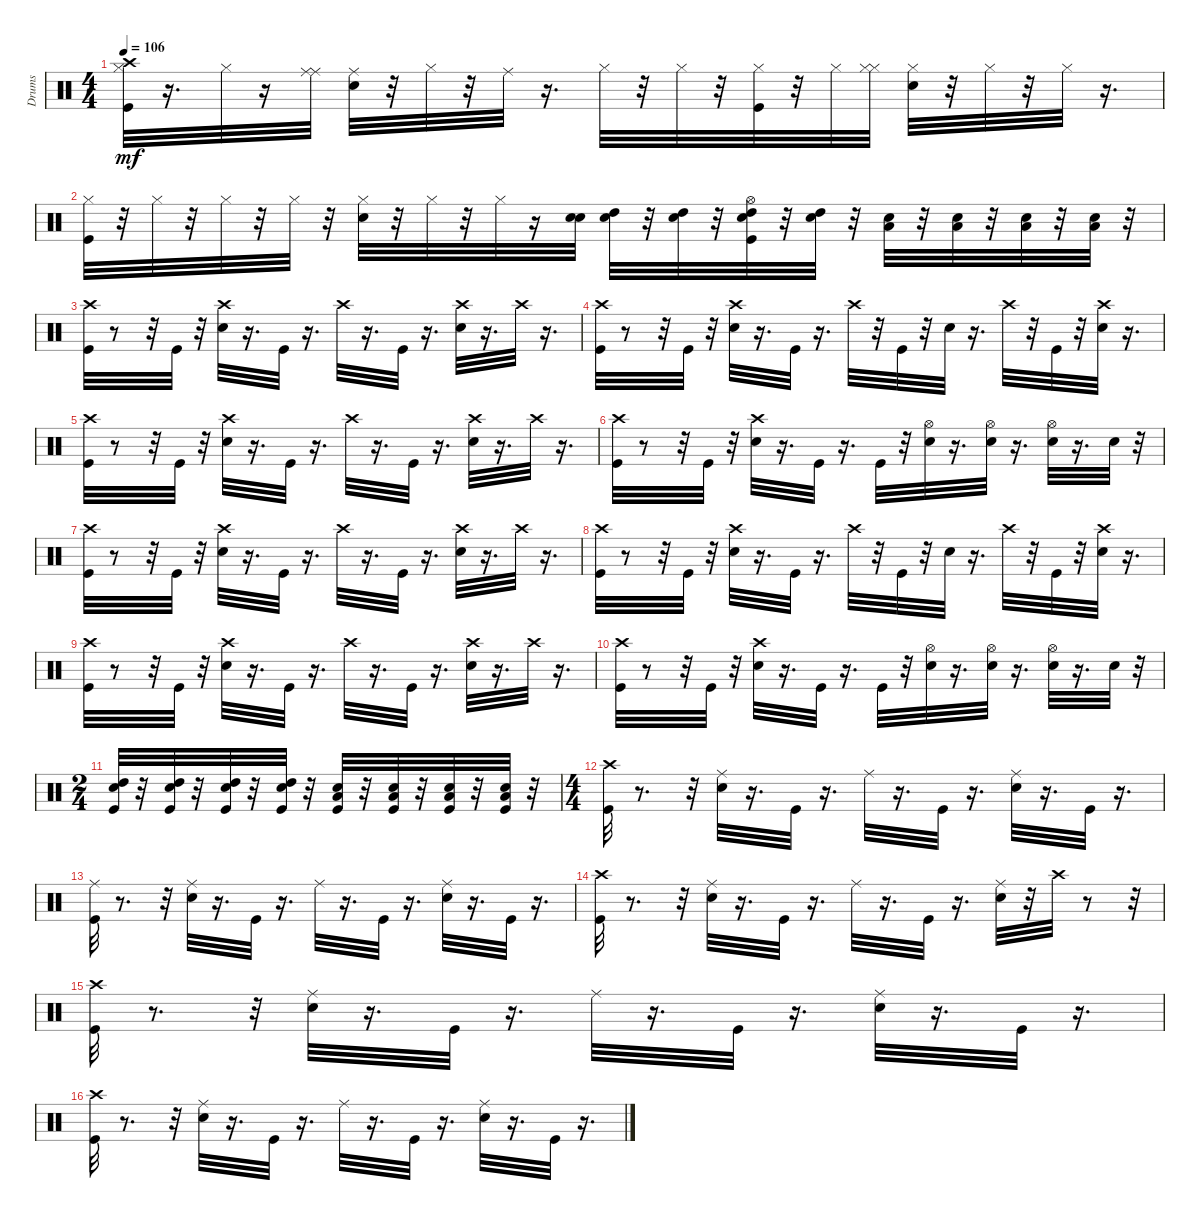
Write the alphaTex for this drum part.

\track ("Drums               " "Drums     ") {instrument percussion}
\staff {score}
\articulation defaults
\ts (4 4)
\tempo 106
\clef neutral
\ks c
("Crash high (hit)" "Hi-Hat (closed)" "Kick (hit)").32{dy mf} r.16{d} "Hi-Hat (closed)".32 r.16 ("Ride (middle)" "Ride (middle)").32 ("Ride (middle)" "Snare (hit) 2").32 r.32 "Hi-Hat (closed)".32 r.32 "Ride (middle)".32 r.16{d} "Hi-Hat (closed)".32 r.32 "Hi-Hat (closed)".32 r.32 ("Hi-Hat (closed)" "Kick (hit)").32 r.32 "Hi-Hat (closed)".32 ("Hi-Hat (closed)" "Hi-Hat (closed)").32 ("Hi-Hat (closed)" "Snare (hit) 2").32 r.32 "Hi-Hat (closed)".32 r.32 "Hi-Hat (closed)".32 r.16{d} |
("Hi-Hat (closed)" "Kick (hit)").32 r.32 "Hi-Hat (closed)".32 r.32 "Hi-Hat (closed)".32 r.32 "Hi-Hat (closed)".32 r.32 ("Snare (hit) 2" "Hi-Hat (closed)").32 r.32 "Hi-Hat (closed)".32 r.32 "Hi-Hat (closed)".32 r.16 ("Snare (hit) 2" "Snare (hit) 2").32 ("Snare (hit) 2" "High Tom (hit)").32 r.32 ("Snare (hit) 2" "High Tom (hit)").32 r.32 ("Hi-Hat (open)" "Snare (hit) 2" "Kick (hit)" "High Tom (hit)").32 r.32 ("Snare (hit) 2" "High Tom (hit)").32 r.32 ("Snare (hit) 2" "Low Tom (hit)").32 r.32 ("Snare (hit) 2" "Low Tom (hit)").32 r.32 ("Snare (hit) 2" "Low Tom (hit)").32 r.32 ("Snare (hit) 2" "Low Tom (hit)").32 r.32 |
("Crash high (hit)" "Kick (hit)").32 r.8 r.32 "Kick (hit)".32 r.32 ("Crash high (hit)" "Snare (hit) 2").32 r.16{d} "Kick (hit)".32 r.16{d} "Crash high (hit)".32 r.16{d} "Kick (hit)".32 r.16{d} ("Crash high (hit)" "Snare (hit) 2").32 r.16{d} "Crash high (hit)".32 r.16{d} |
("Crash high (hit)" "Kick (hit)").32 r.8 r.32 "Kick (hit)".32 r.32 ("Crash high (hit)" "Snare (hit) 2").32 r.16{d} "Kick (hit)".32 r.16{d} "Crash high (hit)".32 r.32 "Kick (hit)".32 r.32 "Snare (hit) 2".32 r.16{d} "Crash high (hit)".32 r.32 "Kick (hit)".32 r.32 ("Crash high (hit)" "Snare (hit) 2").32 r.16{d} |
("Crash high (hit)" "Kick (hit)").32 r.8 r.32 "Kick (hit)".32 r.32 ("Crash high (hit)" "Snare (hit) 2").32 r.16{d} "Kick (hit)".32 r.16{d} "Crash high (hit)".32 r.16{d} "Kick (hit)".32 r.16{d} ("Crash high (hit)" "Snare (hit) 2").32 r.16{d} "Crash high (hit)".32 r.16{d} |
("Crash high (hit)" "Kick (hit)").32 r.8 r.32 "Kick (hit)".32 r.32 ("Crash high (hit)" "Snare (hit) 2").32 r.16{d} "Kick (hit)".32 r.16{d} "Kick (hit)".32 r.32 ("Snare (hit) 2" "Hi-Hat (open)").32 r.16{d} ("Snare (hit) 2" "Hi-Hat (open)").32 r.16{d} ("Hi-Hat (open)" "Snare (hit) 2").32 r.16{d} "Snare (hit) 2".32 r.32 |
("Crash high (hit)" "Kick (hit)").32 r.8 r.32 "Kick (hit)".32 r.32 ("Crash high (hit)" "Snare (hit) 2").32 r.16{d} "Kick (hit)".32 r.16{d} "Crash high (hit)".32 r.16{d} "Kick (hit)".32 r.16{d} ("Crash high (hit)" "Snare (hit) 2").32 r.16{d} "Crash high (hit)".32 r.16{d} |
("Crash high (hit)" "Kick (hit)").32 r.8 r.32 "Kick (hit)".32 r.32 ("Crash high (hit)" "Snare (hit) 2").32 r.16{d} "Kick (hit)".32 r.16{d} "Crash high (hit)".32 r.32 "Kick (hit)".32 r.32 "Snare (hit) 2".32 r.16{d} "Crash high (hit)".32 r.32 "Kick (hit)".32 r.32 ("Crash high (hit)" "Snare (hit) 2").32 r.16{d} |
("Crash high (hit)" "Kick (hit)").32 r.8 r.32 "Kick (hit)".32 r.32 ("Crash high (hit)" "Snare (hit) 2").32 r.16{d} "Kick (hit)".32 r.16{d} "Crash high (hit)".32 r.16{d} "Kick (hit)".32 r.16{d} ("Crash high (hit)" "Snare (hit) 2").32 r.16{d} "Crash high (hit)".32 r.16{d} |
("Crash high (hit)" "Kick (hit)").32 r.8 r.32 "Kick (hit)".32 r.32 ("Crash high (hit)" "Snare (hit) 2").32 r.16{d} "Kick (hit)".32 r.16{d} "Kick (hit)".32 r.32 ("Snare (hit) 2" "Hi-Hat (open)").32 r.16{d} ("Snare (hit) 2" "Hi-Hat (open)").32 r.16{d} ("Hi-Hat (open)" "Snare (hit) 2").32 r.16{d} "Snare (hit) 2".32 r.32 |
\ts (2 4)
("Snare (hit) 2" "High Tom (hit)" "Kick (hit)").32 r.32 ("Snare (hit) 2" "High Tom (hit)" "Kick (hit)").32 r.32 ("Snare (hit) 2" "High Tom (hit)" "Kick (hit)").32 r.32 ("Snare (hit) 2" "High Tom (hit)" "Kick (hit)").32 r.32 ("Snare (hit) 2" "Low Tom (hit)" "Kick (hit)").32 r.32 ("Snare (hit) 2" "Low Tom (hit)" "Kick (hit)").32 r.32 ("Snare (hit) 2" "Low Tom (hit)" "Kick (hit)").32 r.32 ("Snare (hit) 2" "Low Tom (hit)" "Kick (hit)").32 r.32 |
\ts (4 4)
("Kick (hit)" "Crash high (hit)").32 r.8{d} r.32 ("Ride (middle)" "Snare (hit) 2").32 r.16{d} "Kick (hit)".32 r.16{d} "Ride (middle)".32 r.16{d} "Kick (hit)".32 r.16{d} ("Ride (middle)" "Snare (hit) 2").32 r.16{d} "Kick (hit)".32 r.16{d} |
("Ride (middle)" "Kick (hit)").32 r.8{d} r.32 ("Ride (middle)" "Snare (hit) 2").32 r.16{d} "Kick (hit)".32 r.16{d} "Ride (middle)".32 r.16{d} "Kick (hit)".32 r.16{d} ("Ride (middle)" "Snare (hit) 2").32 r.16{d} "Kick (hit)".32 r.16{d} |
("Kick (hit)" "Crash high (hit)").32 r.8{d} r.32 ("Ride (middle)" "Snare (hit) 2").32 r.16{d} "Kick (hit)".32 r.16{d} "Ride (middle)".32 r.16{d} "Kick (hit)".32 r.16{d} ("Ride (middle)" "Snare (hit) 2").32 r.32 "Crash high (hit)".32 r.8 r.32 |
("Kick (hit)" "Crash high (hit)").32 r.8{d} r.32 ("Ride (middle)" "Snare (hit) 2").32 r.16{d} "Kick (hit)".32 r.16{d} "Ride (middle)".32 r.16{d} "Kick (hit)".32 r.16{d} ("Ride (middle)" "Snare (hit) 2").32 r.16{d} "Kick (hit)".32 r.16{d} |
("Kick (hit)" "Crash high (hit)").32 r.8{d} r.32 ("Ride (middle)" "Snare (hit) 2").32 r.16{d} "Kick (hit)".32 r.16{d} "Ride (middle)".32 r.16{d} "Kick (hit)".32 r.16{d} ("Ride (middle)" "Snare (hit) 2").32 r.16{d} "Kick (hit)".32 r.16{d}
